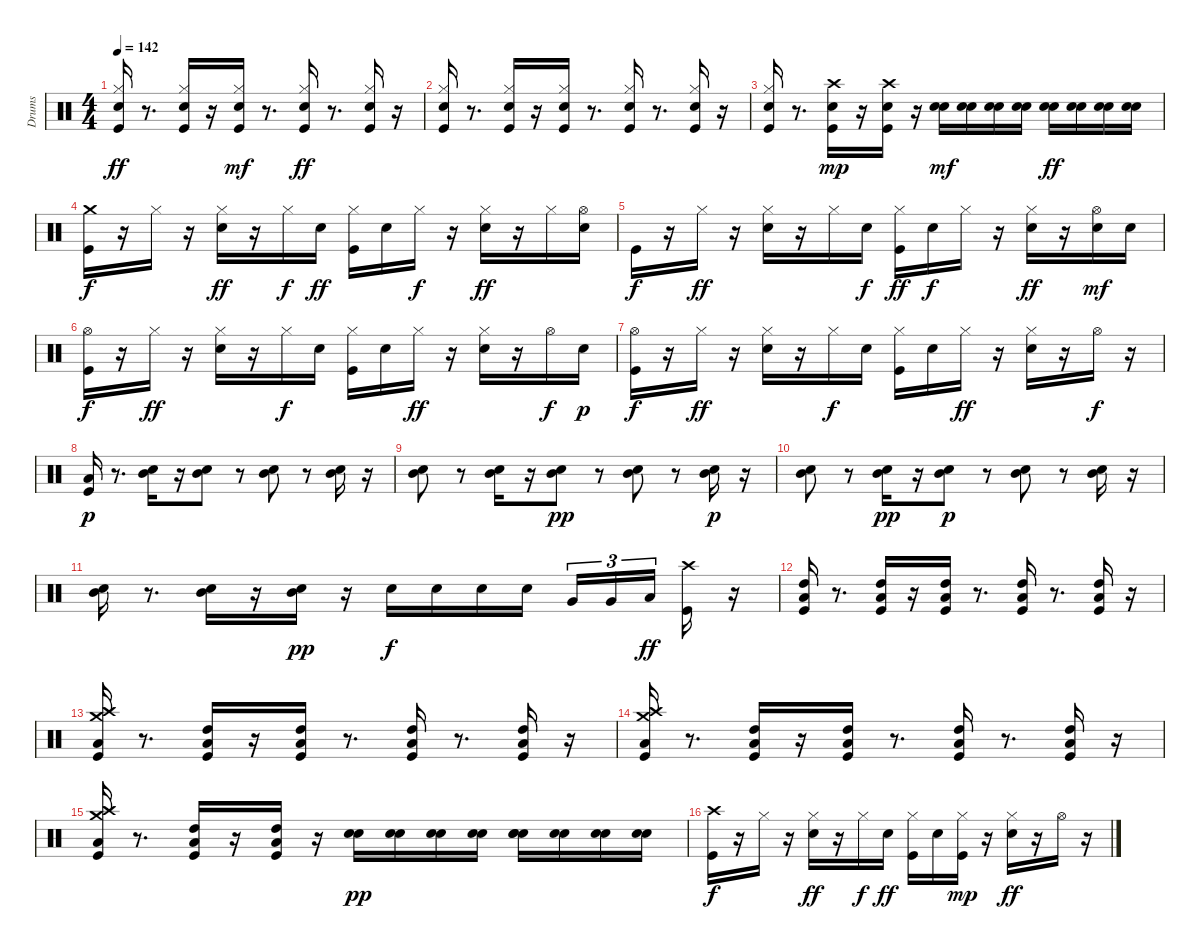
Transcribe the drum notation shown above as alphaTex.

\track ("Drums" "Drums") {instrument percussion}
\staff {score}
\articulation defaults
\ts (4 4)
\tempo 142
\clef neutral
\ks c
("Kick (hit)" "Hi-Hat (closed)" "Electric Snare (hit)").16{dy ff} r.8{d} ("Electric Snare (hit)" "Hi-Hat (closed)" "Kick (hit)").16 r.16 ("Hi-Hat (closed)" "Kick (hit)" "Electric Snare (hit)").16{dy mf} r.8{d} ("Kick (hit)" "Electric Snare (hit)" "Hi-Hat (closed)").16{dy ff} r.8{d} ("Hi-Hat (closed)" "Kick (hit)" "Electric Snare (hit)").16 r.16 |
("Kick (hit)" "Hi-Hat (closed)" "Electric Snare (hit)").16 r.8{d} ("Hi-Hat (closed)" "Electric Snare (hit)" "Kick (hit)").16 r.16 ("Hi-Hat (closed)" "Kick (hit)" "Electric Snare (hit)").16 r.8{d} ("Hi-Hat (closed)" "Electric Snare (hit)" "Kick (hit)").16 r.8{d} ("Kick (hit)" "Hi-Hat (closed)" "Electric Snare (hit)").16 r.16 |
("Electric Snare (hit)" "Hi-Hat (closed)" "Kick (hit)").16 r.8{d} ("Kick (hit)" "Electric Snare (hit)" "Crash high (hit)").16{dy mp} r.16 ("Kick (hit)" "Crash high (hit)" "Electric Snare (hit)").16 r.16 ("Snare (hit) 2" "Electric Snare (hit)").16{dy mf} ("Snare (hit) 2" "Electric Snare (hit)").16 ("Snare (hit) 2" "Electric Snare (hit)").16 ("Snare (hit) 2" "Electric Snare (hit)").16 ("Snare (hit) 2" "Electric Snare (hit)").16{dy ff} ("Snare (hit) 2" "Electric Snare (hit)").16 ("Snare (hit) 2" "Electric Snare (hit)").16 ("Snare (hit) 2" "Electric Snare (hit)").16 |
("Crash medium (hit)" "Kick (hit)").16{dy f} r.16 "Hi-Hat (closed)".16 r.16 ("Hi-Hat (closed)" "Electric Snare (hit)").16{dy ff} r.16 "Hi-Hat (closed)".16{dy f} "Electric Snare (hit)".16{dy ff} ("Kick (hit)" "Hi-Hat (closed)").16 "Electric Snare (hit)".16 "Hi-Hat (closed)".16{dy f} r.16 ("Electric Snare (hit)" "Hi-Hat (closed)").16{dy ff} r.16 "Hi-Hat (closed)".16 ("Electric Snare (hit)" "Hi-Hat (open)").16 |
"Kick (hit)".16{dy f} r.16 "Hi-Hat (closed)".16{dy ff} r.16 ("Hi-Hat (closed)" "Electric Snare (hit)").16 r.16 "Hi-Hat (closed)".16 "Electric Snare (hit)".16{dy f} ("Hi-Hat (closed)" "Kick (hit)").16{dy ff} "Electric Snare (hit)".16{dy f} "Hi-Hat (closed)".16 r.16 ("Electric Snare (hit)" "Hi-Hat (closed)").16{dy ff} r.16 ("Hi-Hat (open)" "Electric Snare (hit)").16{dy mf} "Electric Snare (hit)".16 |
("Kick (hit)" "Hi-Hat (open)").16{dy f} r.16 "Hi-Hat (closed)".16{dy ff} r.16 ("Hi-Hat (closed)" "Electric Snare (hit)").16 r.16 "Hi-Hat (closed)".16{dy f} "Electric Snare (hit)".16 ("Kick (hit)" "Hi-Hat (closed)").16 "Electric Snare (hit)".16 "Hi-Hat (closed)".16{dy ff} r.16 ("Hi-Hat (closed)" "Electric Snare (hit)").16 r.16 "Hi-Hat (open)".16{dy f} "Electric Snare (hit)".16{dy p} |
("Kick (hit)" "Hi-Hat (open)").16{dy f} r.16 "Hi-Hat (closed)".16{dy ff} r.16 ("Hi-Hat (closed)" "Electric Snare (hit)").16 r.16 "Hi-Hat (closed)".16{dy f} "Electric Snare (hit)".16 ("Kick (hit)" "Hi-Hat (closed)").16 "Electric Snare (hit)".16 "Hi-Hat (closed)".16{dy ff} r.16 ("Hi-Hat (closed)" "Electric Snare (hit)").16 r.16 "Hi-Hat (open)".16{dy f} r.16 |
("Kick (hit)" "Low Floor Tom (hit)").16{dy p} r.8{d} ("Electric Snare (hit)" "Mid Tom (hit)").16 r.16 ("Electric Snare (hit)" "Mid Tom (hit)").8 r.8 ("Electric Snare (hit)" "Mid Tom (hit)").8 r.8 ("Electric Snare (hit)" "Mid Tom (hit)").16 r.16 |
("Electric Snare (hit)" "Mid Tom (hit)").8 r.8 ("Electric Snare (hit)" "Mid Tom (hit)").16 r.16 ("Mid Tom (hit)" "Electric Snare (hit)").8{dy pp} r.8 ("Mid Tom (hit)" "Electric Snare (hit)").8 r.8 ("Electric Snare (hit)" "Mid Tom (hit)").16{dy p} r.16 |
("Electric Snare (hit)" "Mid Tom (hit)").8 r.8 ("Mid Tom (hit)" "Electric Snare (hit)").16{dy pp} r.16 ("Electric Snare (hit)" "Mid Tom (hit)").8{dy p} r.8 ("Electric Snare (hit)" "Mid Tom (hit)").8 r.8 ("Electric Snare (hit)" "Mid Tom (hit)").16 r.16 |
("Electric Snare (hit)" "Mid Tom (hit)").16 r.8{d} ("Electric Snare (hit)" "Mid Tom (hit)").16 r.16 ("Mid Tom (hit)" "Electric Snare (hit)").16{dy pp} r.16 "Electric Snare (hit)".16{dy f} "Electric Snare (hit)".16 "Electric Snare (hit)".16 "Electric Snare (hit)".16 "Very Low Tom (hit)".16{tu (3 2)} "Very Low Tom (hit)".16{tu (3 2)} "Low Floor Tom (hit)".16{tu (3 2) dy ff} ("Kick (hit)" "Crash high (hit)").16 r.16 |
("Low Floor Tom (hit)" "Kick (hit)" "High Tom (hit)").16 r.8{d} ("Low Floor Tom (hit)" "Kick (hit)" "High Tom (hit)").16 r.16 ("Kick (hit)" "High Tom (hit)" "Low Floor Tom (hit)").16 r.8{d} ("Low Floor Tom (hit)" "Kick (hit)" "High Tom (hit)").16 r.8{d} ("Kick (hit)" "Low Floor Tom (hit)" "High Tom (hit)").16 r.16 |
("Crash medium (hit)" "Kick (hit)" "Low Floor Tom (hit)" "Crash high (hit)").16 r.8{d} ("Kick (hit)" "Low Floor Tom (hit)" "High Tom (hit)").16 r.16 ("High Tom (hit)" "Low Floor Tom (hit)" "Kick (hit)").16 r.8{d} ("Kick (hit)" "High Tom (hit)" "Low Floor Tom (hit)").16 r.8{d} ("Kick (hit)" "Low Floor Tom (hit)" "High Tom (hit)").16 r.16 |
("Crash medium (hit)" "Kick (hit)" "Crash high (hit)" "Low Floor Tom (hit)").16 r.8{d} ("Low Floor Tom (hit)" "Kick (hit)" "High Tom (hit)").16 r.16 ("Kick (hit)" "Low Floor Tom (hit)" "High Tom (hit)").16 r.8{d} ("Low Floor Tom (hit)" "Kick (hit)" "High Tom (hit)").16 r.8{d} ("High Tom (hit)" "Kick (hit)" "Low Floor Tom (hit)").16 r.16 |
("Crash medium (hit)" "Kick (hit)" "Low Floor Tom (hit)" "Crash high (hit)").16 r.8{d} ("Low Floor Tom (hit)" "Kick (hit)" "High Tom (hit)").16 r.16 ("High Tom (hit)" "Kick (hit)" "Low Floor Tom (hit)").16 r.16 ("Snare (hit) 2" "Electric Snare (hit)").16{dy pp} ("Snare (hit) 2" "Electric Snare (hit)").16 ("Snare (hit) 2" "Electric Snare (hit)").16 ("Snare (hit) 2" "Electric Snare (hit)").16 ("Snare (hit) 2" "Electric Snare (hit)" "Electric Snare (hit)").16 ("Snare (hit) 2" "Electric Snare (hit)").16 ("Snare (hit) 2" "Electric Snare (hit)").16 ("Snare (hit) 2" "Electric Snare (hit)").16 |
("Kick (hit)" "Crash high (hit)").16{dy f} r.16 "Hi-Hat (closed)".16 r.16 ("Electric Snare (hit)" "Hi-Hat (closed)").16{dy ff} r.16 "Hi-Hat (closed)".16{dy f} "Electric Snare (hit)".16{dy ff} ("Kick (hit)" "Hi-Hat (closed)").16 "Electric Snare (hit)".16 ("Kick (hit)" "Hi-Hat (closed)").16{dy mp} r.16 ("Hi-Hat (closed)" "Electric Snare (hit)").16{dy ff} r.16 "Hi-Hat (open)".16 r.16
